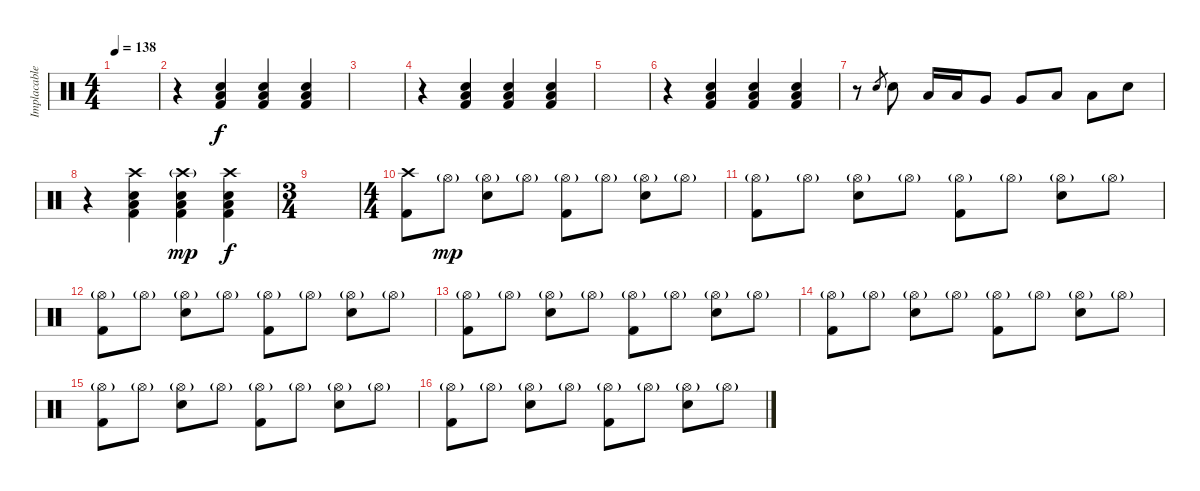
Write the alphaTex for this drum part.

\track ("Implacable Gonzalez" "Implacable") {instrument percussion}
\staff {score}
\articulation defaults
\ts (4 4)
\tempo 138
\clef neutral
\ks c
|
r.4 ("Snare (hit) 2" "Low Floor Tom (hit)" "Kick (hit) 2").4 ("Snare (hit) 2" "Low Floor Tom (hit)" "Kick (hit) 2").4 ("Snare (hit) 2" "Low Floor Tom (hit)" "Kick (hit) 2").4 |
|
r.4 ("Snare (hit) 2" "Low Floor Tom (hit)" "Kick (hit) 2").4 ("Snare (hit) 2" "Low Floor Tom (hit)" "Kick (hit) 2").4 ("Snare (hit) 2" "Low Floor Tom (hit)" "Kick (hit) 2").4 |
|
r.4 ("Snare (hit) 2" "Low Floor Tom (hit)" "Kick (hit) 2").4 ("Snare (hit) 2" "Low Floor Tom (hit)" "Kick (hit) 2").4 ("Snare (hit) 2" "Low Floor Tom (hit)" "Kick (hit) 2").4 |
r.8 "Snare (hit) 2".8{gr} "Snare (hit) 2".8 "Low Floor Tom (hit)".16 "Low Floor Tom (hit)".16 "Very Low Tom (hit)".8 "Very Low Tom (hit)".8 "Low Floor Tom (hit)".8 "Low Floor Tom (hit)".8 "Snare (hit) 2".8 |
r.4 ("Crash high (hit)" "Snare (hit) 2" "Low Floor Tom (hit)" "Kick (hit) 2").4 ("Crash high (hit)"{g} "Snare (hit) 2" "Low Floor Tom (hit)" "Kick (hit) 2").4{dy mp} ("Crash high (hit)" "Snare (hit) 2" "Low Floor Tom (hit)" "Kick (hit) 2").4{dy f} |
\ts (3 4)
|
\ts (4 4)
("Crash high (hit)" "Kick (hit) 2").8 "Hi-Hat (open)"{g}.8{dy mp} ("Hi-Hat (open)"{g} "Snare (hit) 2").8 "Hi-Hat (open)"{g}.8 ("Hi-Hat (open)"{g} "Kick (hit) 2").8 "Hi-Hat (open)"{g}.8 ("Hi-Hat (open)"{g} "Snare (hit) 2").8 "Hi-Hat (open)"{g}.8 |
("Hi-Hat (open)"{g} "Kick (hit) 2").8 "Hi-Hat (open)"{g}.8 ("Hi-Hat (open)"{g} "Snare (hit) 2").8 "Hi-Hat (open)"{g}.8 ("Hi-Hat (open)"{g} "Kick (hit) 2").8 "Hi-Hat (open)"{g}.8 ("Hi-Hat (open)"{g} "Snare (hit) 2").8 "Hi-Hat (open)"{g}.8 |
("Hi-Hat (open)"{g} "Kick (hit) 2").8 "Hi-Hat (open)"{g}.8 ("Hi-Hat (open)"{g} "Snare (hit) 2").8 "Hi-Hat (open)"{g}.8 ("Hi-Hat (open)"{g} "Kick (hit) 2").8 "Hi-Hat (open)"{g}.8 ("Hi-Hat (open)"{g} "Snare (hit) 2").8 "Hi-Hat (open)"{g}.8 |
("Hi-Hat (open)"{g} "Kick (hit) 2").8 "Hi-Hat (open)"{g}.8 ("Hi-Hat (open)"{g} "Snare (hit) 2").8 "Hi-Hat (open)"{g}.8 ("Hi-Hat (open)"{g} "Kick (hit) 2").8 "Hi-Hat (open)"{g}.8 ("Hi-Hat (open)"{g} "Snare (hit) 2").8 "Hi-Hat (open)"{g}.8 |
("Hi-Hat (open)"{g} "Kick (hit) 2").8 "Hi-Hat (open)"{g}.8 ("Hi-Hat (open)"{g} "Snare (hit) 2").8 "Hi-Hat (open)"{g}.8 ("Hi-Hat (open)"{g} "Kick (hit) 2").8 "Hi-Hat (open)"{g}.8 ("Hi-Hat (open)"{g} "Snare (hit) 2").8 "Hi-Hat (open)"{g}.8 |
("Hi-Hat (open)"{g} "Kick (hit) 2").8 "Hi-Hat (open)"{g}.8 ("Hi-Hat (open)"{g} "Snare (hit) 2").8 "Hi-Hat (open)"{g}.8 ("Hi-Hat (open)"{g} "Kick (hit) 2").8 "Hi-Hat (open)"{g}.8 ("Hi-Hat (open)"{g} "Snare (hit) 2").8 "Hi-Hat (open)"{g}.8 |
("Hi-Hat (open)"{g} "Kick (hit) 2").8 "Hi-Hat (open)"{g}.8 ("Hi-Hat (open)"{g} "Snare (hit) 2").8 "Hi-Hat (open)"{g}.8 ("Hi-Hat (open)"{g} "Kick (hit) 2").8 "Hi-Hat (open)"{g}.8 ("Hi-Hat (open)"{g} "Snare (hit) 2").8 "Hi-Hat (open)"{g}.8
